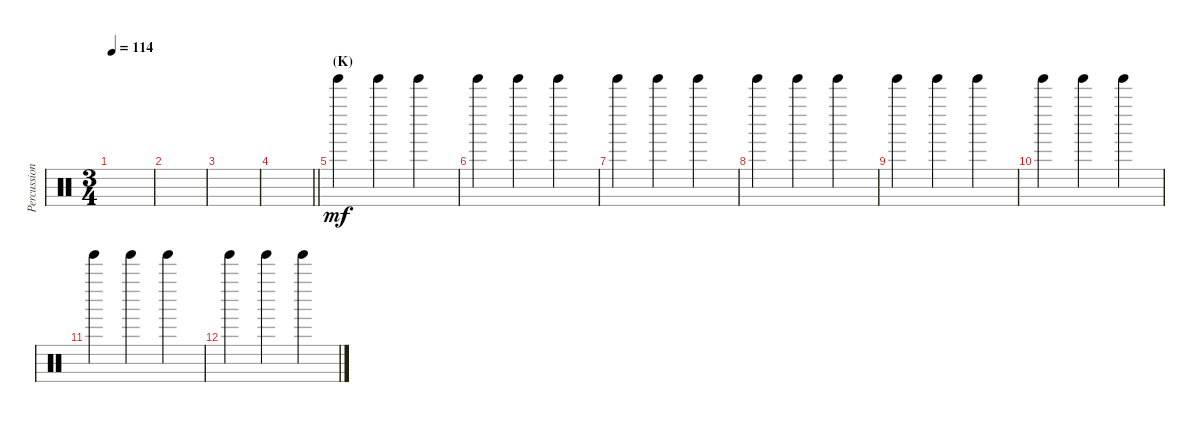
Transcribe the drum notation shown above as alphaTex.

\track ("Percussion 2" "Percussion") {instrument percussion}
\staff {score}
\articulation defaults
\ts (3 4)
\tempo 114
\clef neutral
\ks c
|
|
|
\barLineRight lightlight
|
\section ("" "(K)")
"Tinkle Bell (hit)".4{dy mf} "Tinkle Bell (hit)".4 "Tinkle Bell (hit)".4 |
"Tinkle Bell (hit)".4 "Tinkle Bell (hit)".4 "Tinkle Bell (hit)".4 |
"Tinkle Bell (hit)".4 "Tinkle Bell (hit)".4 "Tinkle Bell (hit)".4 |
"Tinkle Bell (hit)".4 "Tinkle Bell (hit)".4 "Tinkle Bell (hit)".4 |
"Tinkle Bell (hit)".4 "Tinkle Bell (hit)".4 "Tinkle Bell (hit)".4 |
"Tinkle Bell (hit)".4 "Tinkle Bell (hit)".4 "Tinkle Bell (hit)".4 |
"Tinkle Bell (hit)".4 "Tinkle Bell (hit)".4 "Tinkle Bell (hit)".4 |
"Tinkle Bell (hit)".4 "Tinkle Bell (hit)".4 "Tinkle Bell (hit)".4
